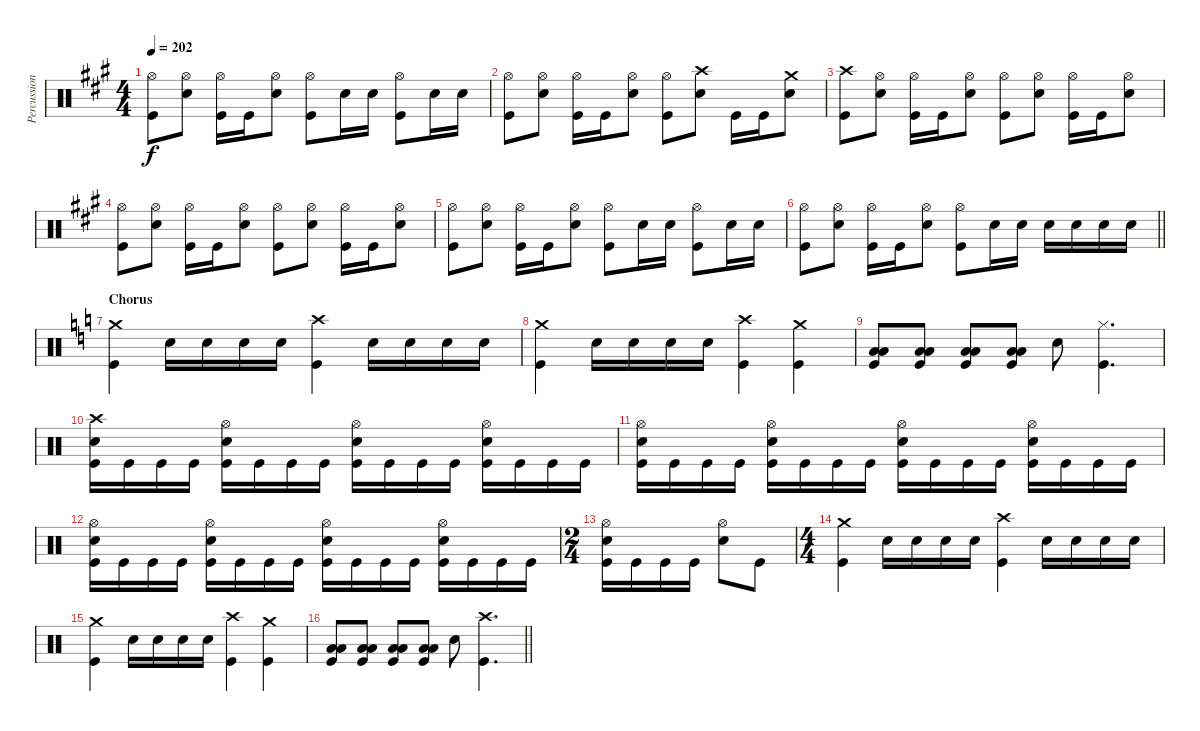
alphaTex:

\track ("Percussion" "Percussion") {instrument percussion}
\staff {score}
\articulation defaults
\ts (4 4)
\tempo 202
\clef neutral
\ks a
("Hi-Hat (open)" "Kick (hit)").8{dy f} ("Hi-Hat (open)" "Electric Snare (hit)").8 ("Hi-Hat (open)" "Kick (hit)").16 "Kick (hit)".16 ("Hi-Hat (open)" "Electric Snare (hit)").8 ("Hi-Hat (open)" "Kick (hit)").8 "Electric Snare (hit)".16 "Electric Snare (hit)".16 ("Hi-Hat (open)" "Kick (hit)").8 "Electric Snare (hit)".16 "Electric Snare (hit)".16 |
("Hi-Hat (open)" "Kick (hit)").8 ("Hi-Hat (open)" "Electric Snare (hit)").8 ("Hi-Hat (open)" "Kick (hit)").16 "Kick (hit)".16 ("Hi-Hat (open)" "Electric Snare (hit)").8 ("Hi-Hat (open)" "Kick (hit)").8 ("Crash high (hit)" "Electric Snare (hit)").8 "Kick (hit)".16 "Kick (hit)".16 ("Crash medium (hit)" "Electric Snare (hit)").8 |
("Crash high (hit)" "Kick (hit)").8 ("Hi-Hat (open)" "Electric Snare (hit)").8 ("Hi-Hat (open)" "Kick (hit)").16 "Kick (hit)".16 ("Hi-Hat (open)" "Electric Snare (hit)").8 ("Hi-Hat (open)" "Kick (hit)").8 ("Hi-Hat (open)" "Electric Snare (hit)").8 ("Hi-Hat (open)" "Kick (hit)").16 "Kick (hit)".16 ("Hi-Hat (open)" "Electric Snare (hit)").8 |
("Hi-Hat (open)" "Kick (hit)").8 ("Hi-Hat (open)" "Electric Snare (hit)").8 ("Hi-Hat (open)" "Kick (hit)").16 "Kick (hit)".16 ("Hi-Hat (open)" "Electric Snare (hit)").8 ("Hi-Hat (open)" "Kick (hit)").8 ("Hi-Hat (open)" "Electric Snare (hit)").8 ("Hi-Hat (open)" "Kick (hit)").16 "Kick (hit)".16 ("Hi-Hat (open)" "Electric Snare (hit)").8 |
("Hi-Hat (open)" "Kick (hit)").8 ("Hi-Hat (open)" "Electric Snare (hit)").8 ("Hi-Hat (open)" "Kick (hit)").16 "Kick (hit)".16 ("Hi-Hat (open)" "Electric Snare (hit)").8 ("Hi-Hat (open)" "Kick (hit)").8 "Electric Snare (hit)".16 "Electric Snare (hit)".16 ("Hi-Hat (open)" "Kick (hit)").8 "Electric Snare (hit)".16 "Electric Snare (hit)".16 |
\barLineRight lightlight
("Hi-Hat (open)" "Kick (hit)").8 ("Hi-Hat (open)" "Electric Snare (hit)").8 ("Hi-Hat (open)" "Kick (hit)").16 "Kick (hit)".16 ("Hi-Hat (open)" "Electric Snare (hit)").8 ("Hi-Hat (open)" "Kick (hit)").8 "Electric Snare (hit)".16 "Electric Snare (hit)".16 "Electric Snare (hit)".16 "Electric Snare (hit)".16 "Electric Snare (hit)".16 "Electric Snare (hit)".16 |
\section ("" "Chorus")
\ks c
("Crash medium (hit)" "Kick (hit)").4 "Electric Snare (hit)".16 "Electric Snare (hit)".16 "Electric Snare (hit)".16 "Electric Snare (hit)".16 ("Crash high (hit)" "Kick (hit)").4 "Electric Snare (hit)".16 "Electric Snare (hit)".16 "Electric Snare (hit)".16 "Electric Snare (hit)".16 |
("Crash medium (hit)" "Kick (hit)").4 "Electric Snare (hit)".16 "Electric Snare (hit)".16 "Electric Snare (hit)".16 "Electric Snare (hit)".16 ("Crash high (hit)" "Kick (hit)").4 ("Crash medium (hit)" "Kick (hit)").4 |
("Low Tom (hit)" "Low Floor Tom (hit)" "Kick (hit)").8 ("Low Tom (hit)" "Low Floor Tom (hit)" "Kick (hit)").8 ("Low Tom (hit)" "Low Floor Tom (hit)" "Kick (hit)").8 ("Low Tom (hit)" "Low Floor Tom (hit)" "Kick (hit)").8 "Electric Snare (hit)".8 ("Hi-Hat (closed)" "Kick (hit)").4{d} |
("Crash high (hit)" "Electric Snare (hit)" "Kick (hit)").16 "Kick (hit)".16 "Kick (hit)".16 "Kick (hit)".16 ("Hi-Hat (open)" "Electric Snare (hit)" "Kick (hit)").16 "Kick (hit)".16 "Kick (hit)".16 "Kick (hit)".16 ("Hi-Hat (open)" "Electric Snare (hit)" "Kick (hit)").16 "Kick (hit)".16 "Kick (hit)".16 "Kick (hit)".16 ("Hi-Hat (open)" "Electric Snare (hit)" "Kick (hit)").16 "Kick (hit)".16 "Kick (hit)".16 "Kick (hit)".16 |
("Hi-Hat (open)" "Electric Snare (hit)" "Kick (hit)").16 "Kick (hit)".16 "Kick (hit)".16 "Kick (hit)".16 ("Hi-Hat (open)" "Electric Snare (hit)" "Kick (hit)").16 "Kick (hit)".16 "Kick (hit)".16 "Kick (hit)".16 ("Hi-Hat (open)" "Electric Snare (hit)" "Kick (hit)").16 "Kick (hit)".16 "Kick (hit)".16 "Kick (hit)".16 ("Hi-Hat (open)" "Electric Snare (hit)" "Kick (hit)").16 "Kick (hit)".16 "Kick (hit)".16 "Kick (hit)".16 |
("Hi-Hat (open)" "Electric Snare (hit)" "Kick (hit)").16 "Kick (hit)".16 "Kick (hit)".16 "Kick (hit)".16 ("Hi-Hat (open)" "Electric Snare (hit)" "Kick (hit)").16 "Kick (hit)".16 "Kick (hit)".16 "Kick (hit)".16 ("Hi-Hat (open)" "Electric Snare (hit)" "Kick (hit)").16 "Kick (hit)".16 "Kick (hit)".16 "Kick (hit)".16 ("Hi-Hat (open)" "Electric Snare (hit)" "Kick (hit)").16 "Kick (hit)".16 "Kick (hit)".16 "Kick (hit)".16 |
\ts (2 4)
("Hi-Hat (open)" "Electric Snare (hit)" "Kick (hit)").16 "Kick (hit)".16 "Kick (hit)".16 "Kick (hit)".16 ("Hi-Hat (open)" "Electric Snare (hit)").8 "Kick (hit)".8 |
\ts (4 4)
("Crash medium (hit)" "Kick (hit)").4 "Electric Snare (hit)".16 "Electric Snare (hit)".16 "Electric Snare (hit)".16 "Electric Snare (hit)".16 ("Crash high (hit)" "Kick (hit)").4 "Electric Snare (hit)".16 "Electric Snare (hit)".16 "Electric Snare (hit)".16 "Electric Snare (hit)".16 |
("Crash medium (hit)" "Kick (hit)").4 "Electric Snare (hit)".16 "Electric Snare (hit)".16 "Electric Snare (hit)".16 "Electric Snare (hit)".16 ("Crash high (hit)" "Kick (hit)").4 ("Crash medium (hit)" "Kick (hit)").4 |
\barLineRight lightlight
("Low Tom (hit)" "Low Floor Tom (hit)" "Kick (hit)").8 ("Low Tom (hit)" "Low Floor Tom (hit)" "Kick (hit)").8 ("Low Tom (hit)" "Low Floor Tom (hit)" "Kick (hit)").8 ("Low Tom (hit)" "Low Floor Tom (hit)" "Kick (hit)").8 "Electric Snare (hit)".8 ("Crash high (hit)" "Kick (hit)").4{d}
